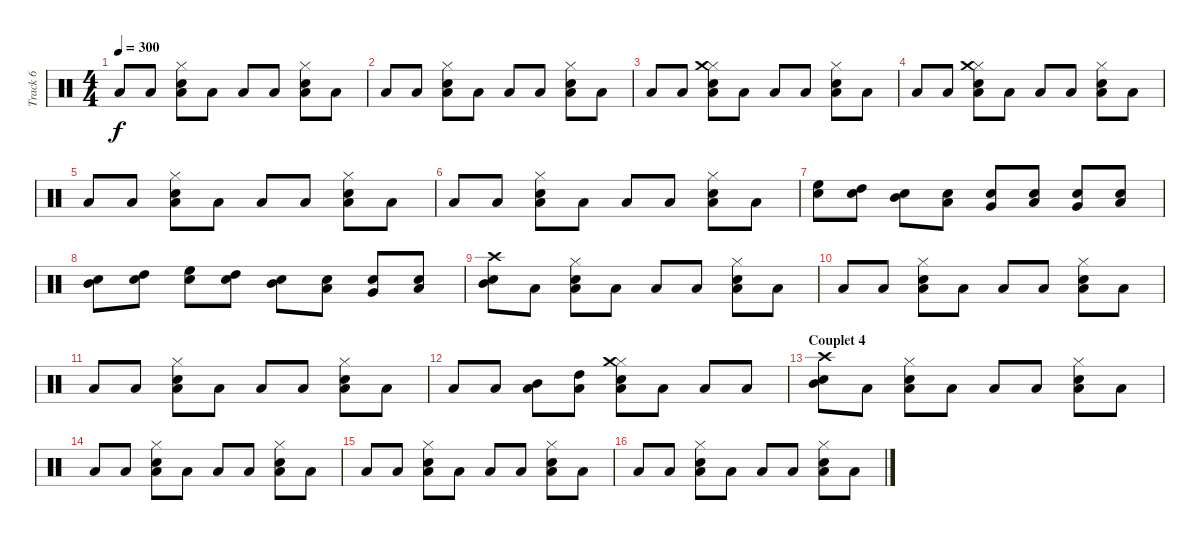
\track ("Track 6" "Track 6") {instrument percussion}
\staff {score}
\articulation defaults
\ts (4 4)
\tempo 300
\clef neutral
\ks c "Low Floor Tom (hit)".8{dy f} "Low Floor Tom (hit)".8
("Electric Snare (hit)" "Low Tom (hit)" "Hi-Hat (closed)").8 "Low Floor Tom (hit)".8 "Low Floor Tom (hit)".8 "Low Floor Tom (hit)".8 ("Electric Snare (hit)" "Low Tom (hit)" "Hi-Hat (closed)").8 "Low Floor Tom (hit)".8 |
"Low Floor Tom (hit)".8 "Low Floor Tom (hit)".8 ("Electric Snare (hit)" "Low Tom (hit)" "Hi-Hat (closed)").8 "Low Floor Tom (hit)".8 "Low Floor Tom (hit)".8 "Low Floor Tom (hit)".8 ("Electric Snare (hit)" "Low Tom (hit)" "Hi-Hat (closed)").8 "Low Floor Tom (hit)".8 |
"Low Floor Tom (hit)".8 "Low Floor Tom (hit)".8 ("Electric Snare (hit)" "Low Tom (hit)" "Hi-Hat (closed)" "Crash medium (hit)").8 "Low Floor Tom (hit)".8 "Low Floor Tom (hit)".8 "Low Floor Tom (hit)".8 ("Electric Snare (hit)" "Low Tom (hit)" "Hi-Hat (closed)").8 "Low Floor Tom (hit)".8 |
"Low Floor Tom (hit)".8 "Low Floor Tom (hit)".8 ("Electric Snare (hit)" "Low Tom (hit)" "Hi-Hat (closed)" "Crash medium (hit)").8 "Low Floor Tom (hit)".8 "Low Floor Tom (hit)".8 "Low Floor Tom (hit)".8 ("Electric Snare (hit)" "Low Tom (hit)" "Hi-Hat (closed)").8 "Low Floor Tom (hit)".8 |
"Low Floor Tom (hit)".8 "Low Floor Tom (hit)".8 ("Electric Snare (hit)" "Low Tom (hit)" "Hi-Hat (closed)").8 "Low Floor Tom (hit)".8 "Low Floor Tom (hit)".8 "Low Floor Tom (hit)".8 ("Electric Snare (hit)" "Low Tom (hit)" "Hi-Hat (closed)").8 "Low Floor Tom (hit)".8 |
"Low Floor Tom (hit)".8 "Low Floor Tom (hit)".8 ("Electric Snare (hit)" "Low Tom (hit)" "Hi-Hat (closed)").8 "Low Floor Tom (hit)".8 "Low Floor Tom (hit)".8 "Low Floor Tom (hit)".8 ("Electric Snare (hit)" "Low Tom (hit)" "Hi-Hat (closed)").8 "Low Floor Tom (hit)".8 |
("High Floor Tom (hit)" "Electric Snare (hit)").8 ("High Tom (hit)" "Electric Snare (hit)").8 ("Mid Tom (hit)" "Electric Snare (hit)").8 ("Low Tom (hit)" "Electric Snare (hit)").8 ("Very Low Tom (hit)" "Electric Snare (hit)").8 ("Low Floor Tom (hit)" "Electric Snare (hit)").8 ("Very Low Tom (hit)" "Electric Snare (hit)").8 ("Low Tom (hit)" "Electric Snare (hit)").8 |
("Mid Tom (hit)" "Electric Snare (hit)").8 ("High Tom (hit)" "Electric Snare (hit)").8 ("High Floor Tom (hit)" "Electric Snare (hit)").8 ("High Tom (hit)" "Electric Snare (hit)").8 ("Mid Tom (hit)" "Snare (hit) 2").8 ("Low Tom (hit)" "Snare (hit) 2").8 ("Very Low Tom (hit)" "Snare (hit) 2").8 ("Low Floor Tom (hit)" "Snare (hit) 2").8 |
("Snare (hit) 2" "Mid Tom (hit)" "Crash high (hit)").8 "Low Floor Tom (hit)".8 ("Electric Snare (hit)" "Low Tom (hit)" "Hi-Hat (closed)").8 "Low Floor Tom (hit)".8 "Low Floor Tom (hit)".8 "Low Floor Tom (hit)".8 ("Electric Snare (hit)" "Low Tom (hit)" "Hi-Hat (closed)").8 "Low Floor Tom (hit)".8 |
"Low Floor Tom (hit)".8 "Low Floor Tom (hit)".8 ("Electric Snare (hit)" "Low Tom (hit)" "Hi-Hat (closed)").8 "Low Floor Tom (hit)".8 "Low Floor Tom (hit)".8 "Low Floor Tom (hit)".8 ("Electric Snare (hit)" "Low Tom (hit)" "Hi-Hat (closed)").8 "Low Floor Tom (hit)".8 |
"Low Floor Tom (hit)".8 "Low Floor Tom (hit)".8 ("Electric Snare (hit)" "Low Tom (hit)" "Hi-Hat (closed)").8 "Low Floor Tom (hit)".8 "Low Floor Tom (hit)".8 "Low Floor Tom (hit)".8 ("Electric Snare (hit)" "Low Tom (hit)" "Hi-Hat (closed)").8 "Low Floor Tom (hit)".8 |
"Low Floor Tom (hit)".8 "Low Floor Tom (hit)".8 ("Low Floor Tom (hit)" "Mid Tom (hit)").8 ("Low Floor Tom (hit)" "High Tom (hit)").8 ("Electric Snare (hit)" "Low Tom (hit)" "Hi-Hat (closed)" "Crash medium (hit)").8 "Low Floor Tom (hit)".8 "Low Floor Tom (hit)".8 "Low Floor Tom (hit)".8 |
\section ("" "Couplet 4")
("Snare (hit) 2" "Mid Tom (hit)" "Crash high (hit)").8 "Low Floor Tom (hit)".8 ("Electric Snare (hit)" "Low Tom (hit)" "Hi-Hat (closed)").8 "Low Floor Tom (hit)".8 "Low Floor Tom (hit)".8 "Low Floor Tom (hit)".8 ("Electric Snare (hit)" "Low Tom (hit)" "Hi-Hat (closed)").8 "Low Floor Tom (hit)".8 |
"Low Floor Tom (hit)".8 "Low Floor Tom (hit)".8 ("Electric Snare (hit)" "Low Tom (hit)" "Hi-Hat (closed)").8 "Low Floor Tom (hit)".8 "Low Floor Tom (hit)".8 "Low Floor Tom (hit)".8 ("Electric Snare (hit)" "Low Tom (hit)" "Hi-Hat (closed)").8 "Low Floor Tom (hit)".8 |
"Low Floor Tom (hit)".8 "Low Floor Tom (hit)".8 ("Electric Snare (hit)" "Low Tom (hit)" "Hi-Hat (closed)").8 "Low Floor Tom (hit)".8 "Low Floor Tom (hit)".8 "Low Floor Tom (hit)".8 ("Electric Snare (hit)" "Low Tom (hit)" "Hi-Hat (closed)").8 "Low Floor Tom (hit)".8 |
"Low Floor Tom (hit)".8 "Low Floor Tom (hit)".8 ("Electric Snare (hit)" "Low Tom (hit)" "Hi-Hat (closed)").8 "Low Floor Tom (hit)".8 "Low Floor Tom (hit)".8 "Low Floor Tom (hit)".8 ("Electric Snare (hit)" "Low Tom (hit)" "Hi-Hat (closed)").8 "Low Floor Tom (hit)".8
